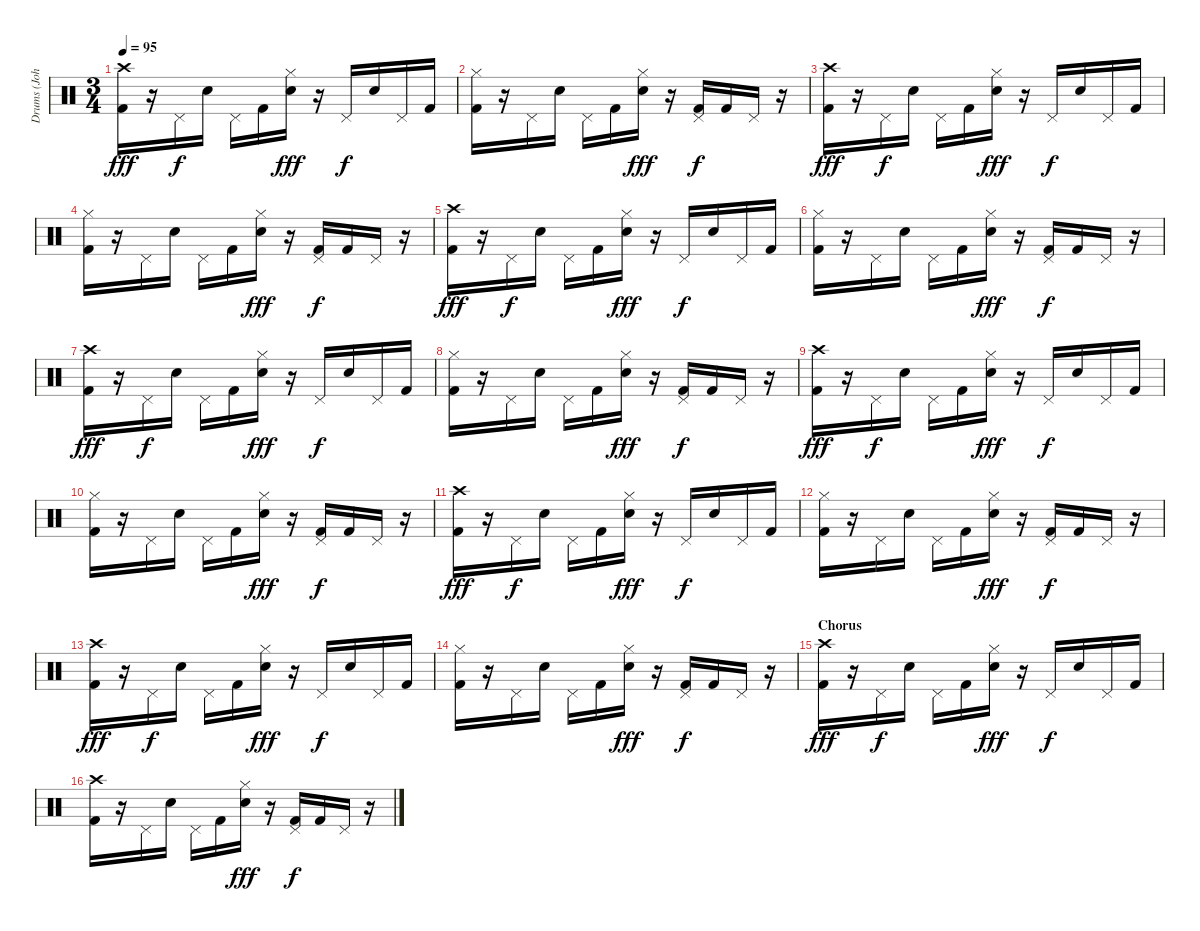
\track ("Drums (John Otto)" "Drums (Joh") {instrument percussion}
\staff {score}
\articulation defaults
\ts (3 4)
\tempo 95
\clef neutral
\ks c
("Crash high (hit)" "Kick (hit) 2").16{dy fff} r.16 "Pedal Hi-Hat (hit)".16{dy f} "Electric Snare (hit)".16 "Pedal Hi-Hat (hit)".16 "Kick (hit) 2".16 ("Hi-Hat (closed)" "Electric Snare (hit)").16{dy fff} r.16 "Pedal Hi-Hat (hit)".16{dy f} "Electric Snare (hit)".16 "Pedal Hi-Hat (hit)".16 "Kick (hit) 2".16 |
("Hi-Hat (closed)" "Kick (hit) 2").16 r.16 "Pedal Hi-Hat (hit)".16 "Electric Snare (hit)".16 "Pedal Hi-Hat (hit)".16 "Kick (hit) 2".16 ("Hi-Hat (closed)" "Electric Snare (hit)").16{dy fff} r.16 ("Pedal Hi-Hat (hit)" "Kick (hit) 2").16{dy f} "Kick (hit) 2".16 "Pedal Hi-Hat (hit)".16 r.16 |
("Crash high (hit)" "Kick (hit) 2").16{dy fff} r.16 "Pedal Hi-Hat (hit)".16{dy f} "Electric Snare (hit)".16 "Pedal Hi-Hat (hit)".16 "Kick (hit) 2".16 ("Hi-Hat (closed)" "Electric Snare (hit)").16{dy fff} r.16 "Pedal Hi-Hat (hit)".16{dy f} "Electric Snare (hit)".16 "Pedal Hi-Hat (hit)".16 "Kick (hit) 2".16 |
("Hi-Hat (closed)" "Kick (hit) 2").16 r.16 "Pedal Hi-Hat (hit)".16 "Electric Snare (hit)".16 "Pedal Hi-Hat (hit)".16 "Kick (hit) 2".16 ("Hi-Hat (closed)" "Electric Snare (hit)").16{dy fff} r.16 ("Pedal Hi-Hat (hit)" "Kick (hit) 2").16{dy f} "Kick (hit) 2".16 "Pedal Hi-Hat (hit)".16 r.16 |
("Crash high (hit)" "Kick (hit) 2").16{dy fff} r.16 "Pedal Hi-Hat (hit)".16{dy f} "Electric Snare (hit)".16 "Pedal Hi-Hat (hit)".16 "Kick (hit) 2".16 ("Hi-Hat (closed)" "Electric Snare (hit)").16{dy fff} r.16 "Pedal Hi-Hat (hit)".16{dy f} "Electric Snare (hit)".16 "Pedal Hi-Hat (hit)".16 "Kick (hit) 2".16 |
("Hi-Hat (closed)" "Kick (hit) 2").16 r.16 "Pedal Hi-Hat (hit)".16 "Electric Snare (hit)".16 "Pedal Hi-Hat (hit)".16 "Kick (hit) 2".16 ("Hi-Hat (closed)" "Electric Snare (hit)").16{dy fff} r.16 ("Pedal Hi-Hat (hit)" "Kick (hit) 2").16{dy f} "Kick (hit) 2".16 "Pedal Hi-Hat (hit)".16 r.16 |
("Crash high (hit)" "Kick (hit) 2").16{dy fff} r.16 "Pedal Hi-Hat (hit)".16{dy f} "Electric Snare (hit)".16 "Pedal Hi-Hat (hit)".16 "Kick (hit) 2".16 ("Hi-Hat (closed)" "Electric Snare (hit)").16{dy fff} r.16 "Pedal Hi-Hat (hit)".16{dy f} "Electric Snare (hit)".16 "Pedal Hi-Hat (hit)".16 "Kick (hit) 2".16 |
("Hi-Hat (closed)" "Kick (hit) 2").16 r.16 "Pedal Hi-Hat (hit)".16 "Electric Snare (hit)".16 "Pedal Hi-Hat (hit)".16 "Kick (hit) 2".16 ("Hi-Hat (closed)" "Electric Snare (hit)").16{dy fff} r.16 ("Pedal Hi-Hat (hit)" "Kick (hit) 2").16{dy f} "Kick (hit) 2".16 "Pedal Hi-Hat (hit)".16 r.16 |
("Crash high (hit)" "Kick (hit) 2").16{dy fff} r.16 "Pedal Hi-Hat (hit)".16{dy f} "Electric Snare (hit)".16 "Pedal Hi-Hat (hit)".16 "Kick (hit) 2".16 ("Hi-Hat (closed)" "Electric Snare (hit)").16{dy fff} r.16 "Pedal Hi-Hat (hit)".16{dy f} "Electric Snare (hit)".16 "Pedal Hi-Hat (hit)".16 "Kick (hit) 2".16 |
("Hi-Hat (closed)" "Kick (hit) 2").16 r.16 "Pedal Hi-Hat (hit)".16 "Electric Snare (hit)".16 "Pedal Hi-Hat (hit)".16 "Kick (hit) 2".16 ("Hi-Hat (closed)" "Electric Snare (hit)").16{dy fff} r.16 ("Pedal Hi-Hat (hit)" "Kick (hit) 2").16{dy f} "Kick (hit) 2".16 "Pedal Hi-Hat (hit)".16 r.16 |
("Crash high (hit)" "Kick (hit) 2").16{dy fff} r.16 "Pedal Hi-Hat (hit)".16{dy f} "Electric Snare (hit)".16 "Pedal Hi-Hat (hit)".16 "Kick (hit) 2".16 ("Hi-Hat (closed)" "Electric Snare (hit)").16{dy fff} r.16 "Pedal Hi-Hat (hit)".16{dy f} "Electric Snare (hit)".16 "Pedal Hi-Hat (hit)".16 "Kick (hit) 2".16 |
("Hi-Hat (closed)" "Kick (hit) 2").16 r.16 "Pedal Hi-Hat (hit)".16 "Electric Snare (hit)".16 "Pedal Hi-Hat (hit)".16 "Kick (hit) 2".16 ("Hi-Hat (closed)" "Electric Snare (hit)").16{dy fff} r.16 ("Pedal Hi-Hat (hit)" "Kick (hit) 2").16{dy f} "Kick (hit) 2".16 "Pedal Hi-Hat (hit)".16 r.16 |
("Crash high (hit)" "Kick (hit) 2").16{dy fff} r.16 "Pedal Hi-Hat (hit)".16{dy f} "Electric Snare (hit)".16 "Pedal Hi-Hat (hit)".16 "Kick (hit) 2".16 ("Hi-Hat (closed)" "Electric Snare (hit)").16{dy fff} r.16 "Pedal Hi-Hat (hit)".16{dy f} "Electric Snare (hit)".16 "Pedal Hi-Hat (hit)".16 "Kick (hit) 2".16 |
("Hi-Hat (closed)" "Kick (hit) 2").16 r.16 "Pedal Hi-Hat (hit)".16 "Electric Snare (hit)".16 "Pedal Hi-Hat (hit)".16 "Kick (hit) 2".16 ("Hi-Hat (closed)" "Electric Snare (hit)").16{dy fff} r.16 ("Pedal Hi-Hat (hit)" "Kick (hit) 2").16{dy f} "Kick (hit) 2".16 "Pedal Hi-Hat (hit)".16 r.16 |
\section ("" "Chorus")
("Crash high (hit)" "Kick (hit) 2").16{dy fff} r.16 "Pedal Hi-Hat (hit)".16{dy f} "Electric Snare (hit)".16 "Pedal Hi-Hat (hit)".16 "Kick (hit) 2".16 ("Hi-Hat (closed)" "Electric Snare (hit)").16{dy fff} r.16 "Pedal Hi-Hat (hit)".16{dy f} "Electric Snare (hit)".16 "Pedal Hi-Hat (hit)".16 "Kick (hit) 2".16 |
("Crash high (hit)" "Kick (hit) 2").16 r.16 "Pedal Hi-Hat (hit)".16 "Electric Snare (hit)".16 "Pedal Hi-Hat (hit)".16 "Kick (hit) 2".16 ("Hi-Hat (closed)" "Electric Snare (hit)").16{dy fff} r.16 ("Pedal Hi-Hat (hit)" "Kick (hit) 2").16{dy f} "Kick (hit) 2".16 "Pedal Hi-Hat (hit)".16 r.16
